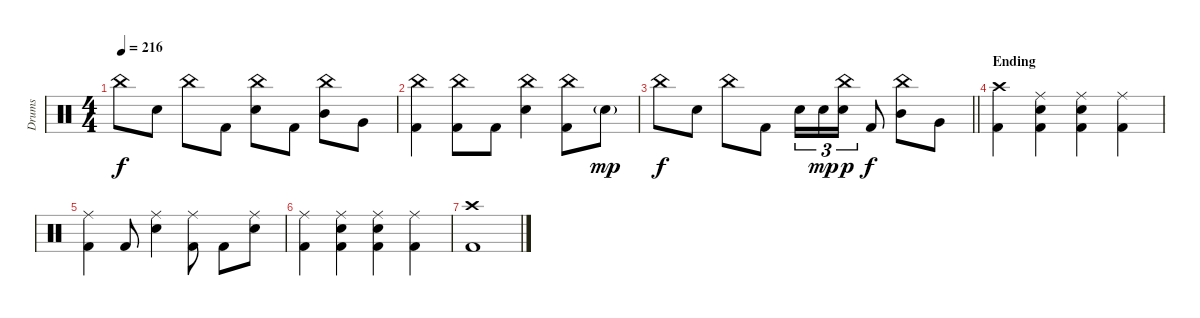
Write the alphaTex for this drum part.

\track ("Drums" "Drums") {instrument percussion}
\staff {score}
\articulation defaults
\ts (4 4)
\tempo 216
\clef neutral
\ks c "China (hit)".8{dy f} "Electric Snare (hit)".8 "China (hit)".8 "Kick (hit) 2".8
("China (hit)" "Electric Snare (hit)").8 "Kick (hit) 2".8 ("China (hit)" "Mid Tom (hit)").8 "Very Low Tom (hit)".8 |
("China (hit)" "Kick (hit) 2").4 ("China (hit)" "Kick (hit) 2").8 "Kick (hit) 2".8 ("China (hit)" "Electric Snare (hit)").4 ("China (hit)" "Kick (hit) 2").8 "Electric Snare (hit)"{g}.8{dy mp} |
\barLineRight lightlight "China (hit)".8{dy f} "Electric Snare (hit)".8 "China (hit)".8 "Kick (hit) 2".8 "Electric Snare (hit)".16{tu (3 2)} "Electric Snare (hit)".16{tu (3 2) dy mp}
("China (hit)" "Electric Snare (hit)").16{tu (3 2) dy p} "Kick (hit) 2".8{dy f} ("China (hit)" "Mid Tom (hit)").8 "Very Low Tom (hit)".8 |
\section ("" "Ending")
("Crash high (hit)" "Kick (hit) 2").4 ("Ride (middle)" "Electric Snare (hit)" "Kick (hit) 2").4 ("Ride (middle)" "Electric Snare (hit)" "Kick (hit) 2").4 ("Ride (middle)" "Kick (hit) 2").4 |
("Ride (middle)" "Kick (hit) 2").4 "Kick (hit) 2".8 ("Ride (middle)" "Electric Snare (hit)").4 ("Ride (middle)" "Kick (hit) 2").8 "Kick (hit) 2".8 ("Ride (middle)" "Electric Snare (hit)").8 |
("Ride (middle)" "Kick (hit) 2").4 ("Ride (middle)" "Electric Snare (hit)" "Kick (hit) 2").4 ("Ride (middle)" "Electric Snare (hit)" "Kick (hit) 2").4 ("Ride (middle)" "Kick (hit) 2").4 |
("Crash high (hit)" "Kick (hit) 2").1
